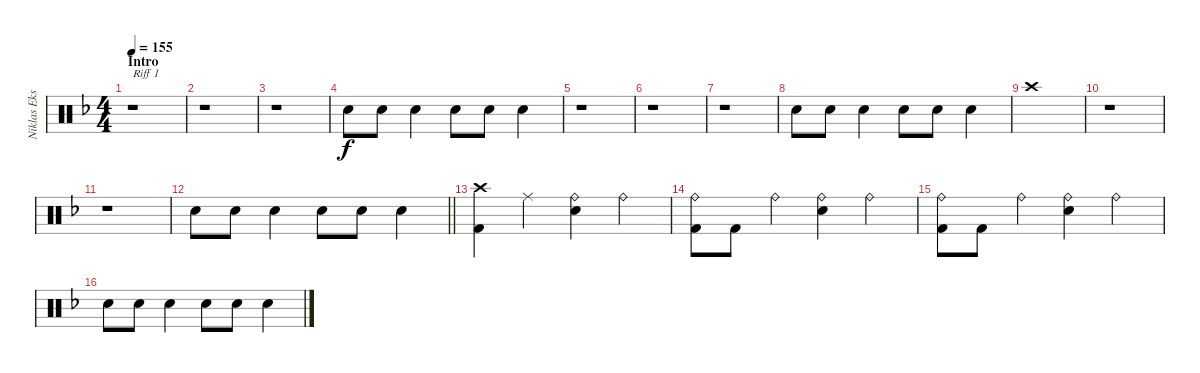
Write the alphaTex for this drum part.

\track ("Niklas Ekstrand" "Niklas Eks") {instrument percussion}
\staff {score}
\articulation defaults
\ts (4 4)
\section ("" "Intro")
\tempo 155
\clef neutral
\ks dminor
r.1{txt "Riff 1" dy f} |
r.1 |
r.1 |
"Snare (hit) 2".8 "Snare (hit) 2".8 "Snare (hit) 2".4 "Snare (hit) 2".8 "Snare (hit) 2".8 "Snare (hit) 2".4 |
r.1 |
r.1 |
r.1 |
"Snare (hit) 2".8 "Snare (hit) 2".8 "Snare (hit) 2".4 "Snare (hit) 2".8 "Snare (hit) 2".8 "Snare (hit) 2".4 |
"Crash high (hit)".1 |
r.1 |
r.1 |
\barLineRight lightlight "Snare (hit) 2".8 "Snare (hit) 2".8 "Snare (hit) 2".4 "Snare (hit) 2".8 "Snare (hit) 2".8 "Snare (hit) 2".4
|
("Crash high (hit)" "Kick (hit) 2").4 "Ride (middle)".4 ("Ride (bell)" "Snare (hit) 2").4 "Ride (bell)".4 |
("Ride (bell)" "Kick (hit) 2").8 "Kick (hit) 2".8 "Ride (bell)".4 ("Ride (bell)" "Snare (hit) 2").4 "Ride (bell)".4 |
("Ride (bell)" "Kick (hit) 2").8 "Kick (hit) 2".8 "Ride (bell)".4 ("Ride (bell)" "Snare (hit) 2").4 "Ride (bell)".4 |
"Snare (hit) 2".8 "Snare (hit) 2".8 "Snare (hit) 2".4 "Snare (hit) 2".8 "Snare (hit) 2".8 "Snare (hit) 2".4
